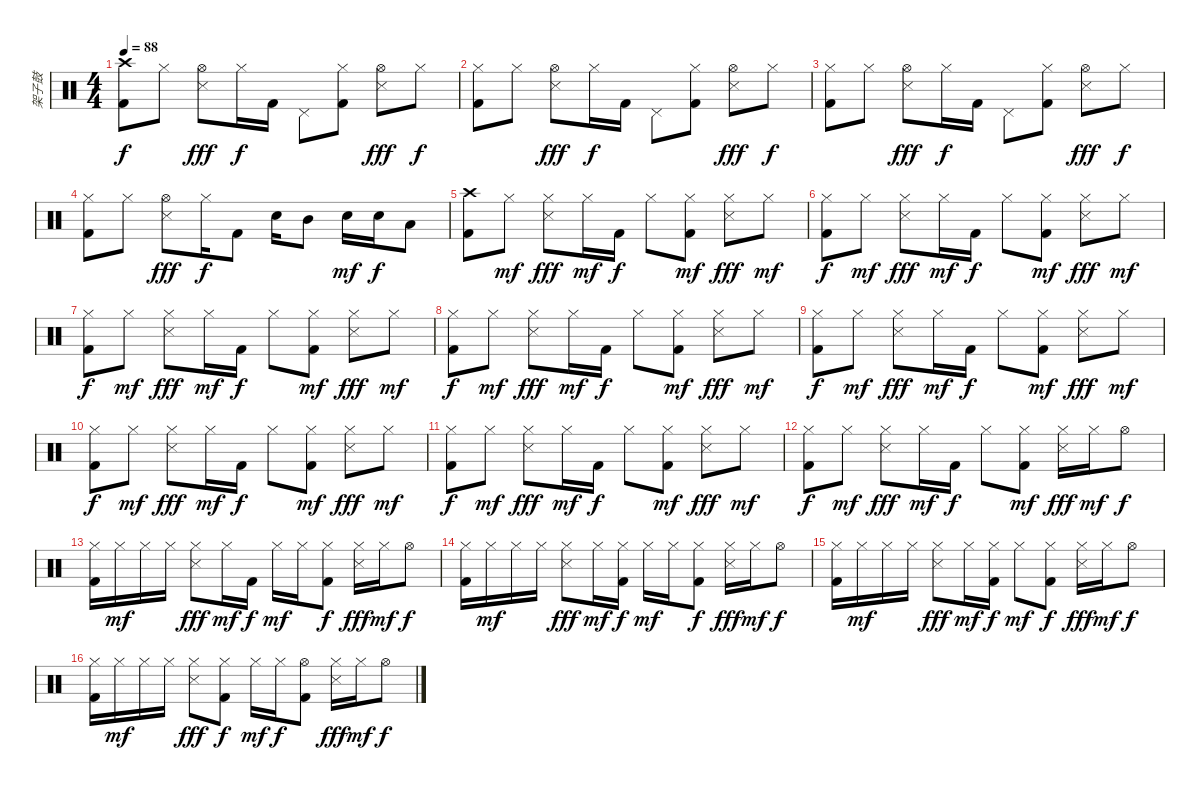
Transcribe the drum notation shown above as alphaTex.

\track ("架子鼓" "架子鼓") {instrument percussion}
\staff {score}
\articulation defaults
\ts (4 4)
\tempo 88
\clef neutral
\ks c
("Crash high (hit)" "Kick (hit) 2").8{dy f} "Hi-Hat (closed)".8 ("Hi-Hat (open)" "Snare (side stick) 3").8{dy fff} "Hi-Hat (closed)".16{dy f} "Kick (hit) 2".16 "Pedal Hi-Hat (hit)".8 ("Hi-Hat (closed)" "Kick (hit) 2").8 ("Hi-Hat (open)" "Snare (side stick) 3").8{dy fff} "Hi-Hat (closed)".8{dy f} |
("Hi-Hat (closed)" "Kick (hit) 2").8 "Hi-Hat (closed)".8 ("Hi-Hat (open)" "Snare (side stick) 3").8{dy fff} "Hi-Hat (closed)".16{dy f} "Kick (hit) 2".16 "Pedal Hi-Hat (hit)".8 ("Hi-Hat (closed)" "Kick (hit) 2").8 ("Hi-Hat (open)" "Snare (side stick) 3").8{dy fff} "Hi-Hat (closed)".8{dy f} |
("Hi-Hat (closed)" "Kick (hit) 2").8 "Hi-Hat (closed)".8 ("Hi-Hat (open)" "Snare (side stick) 3").8{dy fff} "Hi-Hat (closed)".16{dy f} "Kick (hit) 2".16 "Pedal Hi-Hat (hit)".8 ("Hi-Hat (closed)" "Kick (hit) 2").8 ("Hi-Hat (open)" "Snare (side stick) 3").8{dy fff} "Hi-Hat (closed)".8{dy f} |
("Hi-Hat (closed)" "Kick (hit) 2").8 "Hi-Hat (closed)".8 ("Hi-Hat (open)" "Snare (side stick) 3").8{dy fff} "Hi-Hat (closed)".16{dy f} "Kick (hit) 2".8 "Electric Snare (hit)".16 "Mid Tom (hit)".8 "Electric Snare (hit)".16{dy mf} "Electric Snare (hit)".16{dy f} "Low Tom (hit)".8 |
("Crash high (hit)" "Kick (hit) 2").8 "Hi-Hat (closed)".8{dy mf} ("Hi-Hat (closed)" "Snare (side stick) 3").8{dy fff} "Hi-Hat (closed)".16{dy mf} "Kick (hit) 2".16{dy f} "Hi-Hat (closed)".8 ("Hi-Hat (closed)" "Kick (hit) 2").8{dy mf} ("Hi-Hat (closed)" "Snare (side stick) 3").8{dy fff} "Hi-Hat (closed)".8{dy mf} |
("Hi-Hat (closed)" "Kick (hit) 2").8{dy f} "Hi-Hat (closed)".8{dy mf} ("Hi-Hat (closed)" "Snare (side stick) 3").8{dy fff} "Hi-Hat (closed)".16{dy mf} "Kick (hit) 2".16{dy f} "Hi-Hat (closed)".8 ("Hi-Hat (closed)" "Kick (hit) 2").8{dy mf} ("Hi-Hat (closed)" "Snare (side stick) 3").8{dy fff} "Hi-Hat (closed)".8{dy mf} |
("Hi-Hat (closed)" "Kick (hit) 2").8{dy f} "Hi-Hat (closed)".8{dy mf} ("Hi-Hat (closed)" "Snare (side stick) 3").8{dy fff} "Hi-Hat (closed)".16{dy mf} "Kick (hit) 2".16{dy f} "Hi-Hat (closed)".8 ("Hi-Hat (closed)" "Kick (hit) 2").8{dy mf} ("Hi-Hat (closed)" "Snare (side stick) 3").8{dy fff} "Hi-Hat (closed)".8{dy mf} |
("Hi-Hat (closed)" "Kick (hit) 2").8{dy f} "Hi-Hat (closed)".8{dy mf} ("Hi-Hat (closed)" "Snare (side stick) 3").8{dy fff} "Hi-Hat (closed)".16{dy mf} "Kick (hit) 2".16{dy f} "Hi-Hat (closed)".8 ("Hi-Hat (closed)" "Kick (hit) 2").8{dy mf} ("Hi-Hat (closed)" "Snare (side stick) 3").8{dy fff} "Hi-Hat (closed)".8{dy mf} |
("Hi-Hat (closed)" "Kick (hit) 2").8{dy f} "Hi-Hat (closed)".8{dy mf} ("Hi-Hat (closed)" "Snare (side stick) 3").8{dy fff} "Hi-Hat (closed)".16{dy mf} "Kick (hit) 2".16{dy f} "Hi-Hat (closed)".8 ("Hi-Hat (closed)" "Kick (hit) 2").8{dy mf} ("Hi-Hat (closed)" "Snare (side stick) 3").8{dy fff} "Hi-Hat (closed)".8{dy mf} |
("Hi-Hat (closed)" "Kick (hit) 2").8{dy f} "Hi-Hat (closed)".8{dy mf} ("Hi-Hat (closed)" "Snare (side stick) 3").8{dy fff} "Hi-Hat (closed)".16{dy mf} "Kick (hit) 2".16{dy f} "Hi-Hat (closed)".8 ("Hi-Hat (closed)" "Kick (hit) 2").8{dy mf} ("Hi-Hat (closed)" "Snare (side stick) 3").8{dy fff} "Hi-Hat (closed)".8{dy mf} |
("Hi-Hat (closed)" "Kick (hit) 2").8{dy f} "Hi-Hat (closed)".8{dy mf} ("Hi-Hat (closed)" "Snare (side stick) 3").8{dy fff} "Hi-Hat (closed)".16{dy mf} "Kick (hit) 2".16{dy f} "Hi-Hat (closed)".8 ("Hi-Hat (closed)" "Kick (hit) 2").8{dy mf} ("Hi-Hat (closed)" "Snare (side stick) 3").8{dy fff} "Hi-Hat (closed)".8{dy mf} |
("Hi-Hat (closed)" "Kick (hit) 2").8{dy f} "Hi-Hat (closed)".8{dy mf} ("Hi-Hat (closed)" "Snare (side stick) 3").8{dy fff} "Hi-Hat (closed)".16{dy mf} "Kick (hit) 2".16{dy f} "Hi-Hat (closed)".8 ("Hi-Hat (closed)" "Kick (hit) 2").8{dy mf} ("Hi-Hat (closed)" "Snare (side stick) 3").16{dy fff} "Hi-Hat (closed)".16{dy mf} "Hi-Hat (open)".8{dy f} |
("Hi-Hat (closed)" "Kick (hit) 2").16 "Hi-Hat (closed)".16{dy mf} "Hi-Hat (closed)".16 "Hi-Hat (closed)".16 ("Hi-Hat (closed)" "Snare (side stick) 3").8{dy fff} "Hi-Hat (closed)".16{dy mf} "Kick (hit) 2".16{dy f} "Hi-Hat (closed)".16{dy mf} "Hi-Hat (closed)".16 ("Hi-Hat (closed)" "Kick (hit) 2").8{dy f} ("Hi-Hat (closed)" "Snare (side stick) 3").16{dy fff} "Hi-Hat (closed)".16{dy mf} "Hi-Hat (open)".8{dy f} |
("Hi-Hat (closed)" "Kick (hit) 2").16 "Hi-Hat (closed)".16{dy mf} "Hi-Hat (closed)".16 "Hi-Hat (closed)".16 ("Hi-Hat (closed)" "Snare (side stick) 3").8{dy fff} "Hi-Hat (closed)".16{dy mf} ("Hi-Hat (closed)" "Kick (hit) 2").16{dy f} "Hi-Hat (closed)".16{dy mf} "Hi-Hat (closed)".16 ("Hi-Hat (closed)" "Kick (hit) 2").8{dy f} ("Hi-Hat (closed)" "Snare (side stick) 3").16{dy fff} "Hi-Hat (closed)".16{dy mf} "Hi-Hat (open)".8{dy f} |
("Hi-Hat (closed)" "Kick (hit) 2").16 "Hi-Hat (closed)".16{dy mf} "Hi-Hat (closed)".16 "Hi-Hat (closed)".16 ("Hi-Hat (closed)" "Snare (side stick) 3").8{dy fff} "Hi-Hat (closed)".16{dy mf} ("Hi-Hat (closed)" "Kick (hit) 2").16{dy f} "Hi-Hat (closed)".8{dy mf} ("Hi-Hat (closed)" "Kick (hit) 2").8{dy f} ("Hi-Hat (closed)" "Snare (side stick) 3").16{dy fff} "Hi-Hat (closed)".16{dy mf} "Hi-Hat (open)".8{dy f} |
("Hi-Hat (closed)" "Kick (hit) 2").16 "Hi-Hat (closed)".16{dy mf} "Hi-Hat (closed)".16 "Hi-Hat (closed)".16 ("Hi-Hat (closed)" "Snare (side stick) 3").8{dy fff} ("Hi-Hat (closed)" "Kick (hit) 2").8{dy f} "Hi-Hat (closed)".16{dy mf} "Hi-Hat (closed)".16{dy f} ("Hi-Hat (open)" "Kick (hit) 2").8 ("Hi-Hat (closed)" "Snare (side stick) 3").16{dy fff} "Hi-Hat (closed)".16{dy mf} "Hi-Hat (open)".8{dy f}
